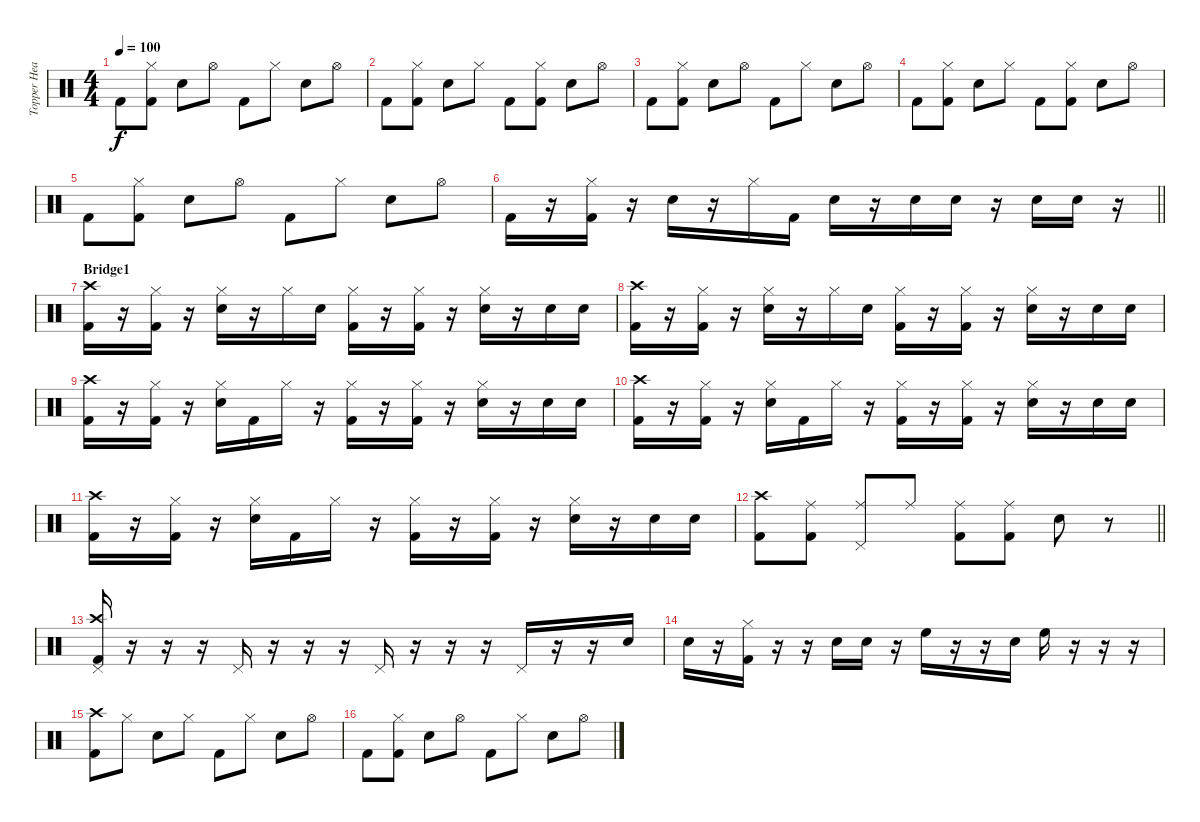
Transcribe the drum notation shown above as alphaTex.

\track ("Topper Headon" "Topper Hea") {instrument percussion}
\staff {score}
\articulation defaults
\ts (4 4)
\tempo 100
\clef neutral
\ks c "Kick (hit) 2".8{dy f}
("Hi-Hat (closed)" "Kick (hit) 2").8 "Snare (hit) 2".8 "Hi-Hat (open)".8 "Kick (hit) 2".8 "Hi-Hat (closed)".8 "Snare (hit) 2".8 "Hi-Hat (open)".8 |
"Kick (hit) 2".8 ("Hi-Hat (closed)" "Kick (hit) 2").8 "Snare (hit) 2".8 "Hi-Hat (closed)".8 "Kick (hit) 2".8 ("Hi-Hat (closed)" "Kick (hit) 2").8 "Snare (hit) 2".8 "Hi-Hat (open)".8 |
"Kick (hit) 2".8 ("Hi-Hat (closed)" "Kick (hit) 2").8 "Snare (hit) 2".8 "Hi-Hat (open)".8 "Kick (hit) 2".8 "Hi-Hat (closed)".8 "Snare (hit) 2".8 "Hi-Hat (open)".8 |
"Kick (hit) 2".8 ("Hi-Hat (closed)" "Kick (hit) 2").8 "Snare (hit) 2".8 "Hi-Hat (closed)".8 "Kick (hit) 2".8 ("Hi-Hat (closed)" "Kick (hit) 2").8 "Snare (hit) 2".8 "Hi-Hat (open)".8 |
"Kick (hit) 2".8 ("Hi-Hat (closed)" "Kick (hit) 2").8 "Snare (hit) 2".8 "Hi-Hat (open)".8 "Kick (hit) 2".8 "Hi-Hat (closed)".8 "Snare (hit) 2".8 "Hi-Hat (open)".8 |
\barLineRight lightlight "Kick (hit) 2".16
r.16 ("Hi-Hat (closed)" "Kick (hit) 2").16 r.16 "Snare (hit) 2".16 r.16 "Hi-Hat (closed)".16 "Kick (hit) 2".16 "Snare (hit) 2".16 r.16 "Snare (hit) 2".16 "Snare (hit) 2".16 r.16 "Snare (hit) 2".16 "Snare (hit) 2".16 r.16 |
\section ("" "Bridge1")
("Crash high (hit)" "Kick (hit) 2").16 r.16 ("Hi-Hat (closed)" "Kick (hit) 2").16 r.16 ("Hi-Hat (closed)" "Snare (hit) 2").16 r.16 "Hi-Hat (closed)".16 "Snare (hit) 2".16 ("Hi-Hat (closed)" "Kick (hit) 2").16 r.16 ("Hi-Hat (closed)" "Kick (hit) 2").16 r.16 ("Hi-Hat (closed)" "Snare (hit) 2").16 r.16 "Snare (hit) 2".16 "Snare (hit) 2".16 |
("Crash high (hit)" "Kick (hit) 2").16 r.16 ("Hi-Hat (closed)" "Kick (hit) 2").16 r.16 ("Hi-Hat (closed)" "Snare (hit) 2").16 r.16 "Hi-Hat (closed)".16 "Snare (hit) 2".16 ("Hi-Hat (closed)" "Kick (hit) 2").16 r.16 ("Hi-Hat (closed)" "Kick (hit) 2").16 r.16 ("Hi-Hat (closed)" "Snare (hit) 2").16 r.16 "Snare (hit) 2".16 "Snare (hit) 2".16 |
("Crash high (hit)" "Kick (hit) 2").16 r.16 ("Hi-Hat (closed)" "Kick (hit) 2").16 r.16 ("Hi-Hat (closed)" "Snare (hit) 2").16 "Kick (hit) 2".16 "Hi-Hat (closed)".16 r.16 ("Hi-Hat (closed)" "Kick (hit) 2").16 r.16 ("Hi-Hat (closed)" "Kick (hit) 2").16 r.16 ("Hi-Hat (closed)" "Snare (hit) 2").16 r.16 "Snare (hit) 2".16 "Snare (hit) 2".16 |
("Crash high (hit)" "Kick (hit) 2").16 r.16 ("Hi-Hat (closed)" "Kick (hit) 2").16 r.16 ("Hi-Hat (closed)" "Snare (hit) 2").16 "Kick (hit) 2".16 "Hi-Hat (closed)".16 r.16 ("Hi-Hat (closed)" "Kick (hit) 2").16 r.16 ("Hi-Hat (closed)" "Kick (hit) 2").16 r.16 ("Hi-Hat (closed)" "Snare (hit) 2").16 r.16 "Snare (hit) 2".16 "Snare (hit) 2".16 |
("Crash high (hit)" "Kick (hit) 2").16 r.16 ("Hi-Hat (closed)" "Kick (hit) 2").16 r.16 ("Hi-Hat (closed)" "Snare (hit) 2").16 "Kick (hit) 2".16 "Hi-Hat (closed)".16 r.16 ("Hi-Hat (closed)" "Kick (hit) 2").16 r.16 ("Hi-Hat (closed)" "Kick (hit) 2").16 r.16 ("Hi-Hat (closed)" "Snare (hit) 2").16 r.16 "Snare (hit) 2".16 "Snare (hit) 2".16 |
\barLineRight lightlight
("Crash high (hit)" "Kick (hit) 2").8 ("Ride (middle)" "Kick (hit) 2").8 ("Ride (middle)" "Pedal Hi-Hat (hit)").8 "Ride (middle)".8 ("Ride (middle)" "Kick (hit) 2").8 ("Ride (middle)" "Kick (hit) 2").8 "Electric Snare (hit)".8 r.8 |
("Crash high (hit)" "Pedal Hi-Hat (hit)" "Kick (hit) 2").16 r.16 r.16 r.16 "Pedal Hi-Hat (hit)".16 r.16 r.16 r.16 "Pedal Hi-Hat (hit)".16 r.16 r.16 r.16 "Pedal Hi-Hat (hit)".16 r.16 r.16 "Snare (hit) 2".16 |
"Snare (hit) 2".16 r.16 ("Hi-Hat (closed)" "Kick (hit) 2").16 r.16 r.16 "Snare (hit) 2".16 "Snare (hit) 2".16 r.16 "High Floor Tom (hit)".16 r.16 r.16 "Snare (hit) 2".16 "High Floor Tom (hit)".16 r.16 r.16 r.16 |
("Crash high (hit)" "Kick (hit) 2").8 "Hi-Hat (closed)".8 "Snare (hit) 2".8 "Hi-Hat (closed)".8 "Kick (hit) 2".8 "Hi-Hat (closed)".8 "Snare (hit) 2".8 "Hi-Hat (open)".8 |
"Kick (hit) 2".8 ("Hi-Hat (closed)" "Kick (hit) 2").8 "Snare (hit) 2".8 "Hi-Hat (open)".8 "Kick (hit) 2".8 "Hi-Hat (closed)".8 "Snare (hit) 2".8 "Hi-Hat (open)".8
